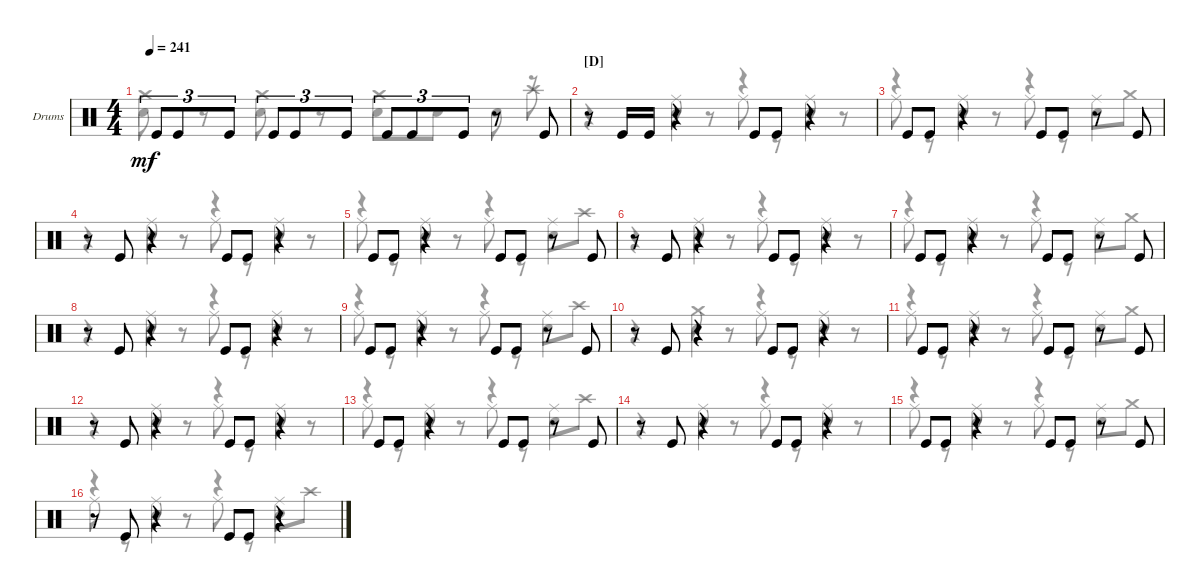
\defaultSystemsLayout 4
\bracketExtendMode groupsimilarinstruments
\firstSystemTrackNameOrientation horizontal
\otherSystemsTrackNameOrientation horizontal
\track ("Drumkit" "Drums") {instrument percussion}
\staff {score}
\articulation defaults
\voice
\ts (4 4)
\tempo 241
\clef neutral
\ks c "Kick (hit)".8{tu (3 2) dy mf} "Kick (hit)".8{tu (3 2)} "Kick (hit)".8{tu (3 2)} "Kick (hit)".8{tu (3 2)} "Kick (hit)".8{tu (3 2)} "Kick (hit)".8{tu (3 2)} "Kick (hit)".8{tu (3 2)} "Kick (hit)".8{tu (3 2)} "Kick (hit)".8{tu (3 2)}
r.8 "Kick (hit)".8 |
\section ("D" "")
r.8 "Kick (hit)".16 "Kick (hit)".16 r.4 "Kick (hit)".8 "Kick (hit)".8 r.4 |
"Kick (hit)".8 "Kick (hit)".8 r.4 "Kick (hit)".8 "Kick (hit)".8 r.8 "Kick (hit)".8 |
r.8 "Kick (hit)".8 r.4 "Kick (hit)".8 "Kick (hit)".8 r.4 |
"Kick (hit)".8 "Kick (hit)".8 r.4 "Kick (hit)".8 "Kick (hit)".8 r.8 "Kick (hit)".8 |
r.8 "Kick (hit)".8 r.4 "Kick (hit)".8 "Kick (hit)".8 r.4 |
"Kick (hit)".8 "Kick (hit)".8 r.4 "Kick (hit)".8 "Kick (hit)".8 r.8 "Kick (hit)".8 |
r.8 "Kick (hit)".8 r.4 "Kick (hit)".8 "Kick (hit)".8 r.4 |
"Kick (hit)".8 "Kick (hit)".8 r.4 "Kick (hit)".8 "Kick (hit)".8 r.8 "Kick (hit)".8 |
r.8 "Kick (hit)".8 r.4 "Kick (hit)".8 "Kick (hit)".8 r.4 |
"Kick (hit)".8 "Kick (hit)".8 r.4 "Kick (hit)".8 "Kick (hit)".8 r.8 "Kick (hit)".8 |
r.8 "Kick (hit)".8 r.4 "Kick (hit)".8 "Kick (hit)".8 r.4 |
"Kick (hit)".8 "Kick (hit)".8 r.4 "Kick (hit)".8 "Kick (hit)".8 r.8 "Kick (hit)".8 |
r.8 "Kick (hit)".8 r.4 "Kick (hit)".8 "Kick (hit)".8 r.4 |
"Kick (hit)".8 "Kick (hit)".8 r.4 "Kick (hit)".8 "Kick (hit)".8 r.8 "Kick (hit)".8 |
r.8 "Kick (hit)".8 r.4 "Kick (hit)".8 "Kick (hit)".8 r.4
\voice
\clef neutral
\ottava regular
\simile none
\ks c "Snare (hit) 2".8{dy mf}
r.8 "Snare (hit) 2".8 r.8 "Snare (hit) 2".8 "Snare (hit) 2".8 "Snare (hit) 2".8 r.8 |
r.4 "Snare (hit) 2".4 r.4 "Snare (hit) 2".4 |
r.4 "Snare (hit) 2".4 r.4 "Snare (hit) 2".4 |
r.4 "Snare (hit) 2".4 r.4 "Snare (hit) 2".4 |
r.4 "Snare (hit) 2".4 r.4 "Snare (hit) 2".4 |
r.4 "Snare (hit) 2".4 r.4 "Snare (hit) 2".4 |
r.4 "Snare (hit) 2".4 r.4 "Snare (hit) 2".4 |
r.4 "Snare (hit) 2".4 r.4 "Snare (hit) 2".4 |
r.4 "Snare (hit) 2".4 r.4 "Snare (hit) 2".4 |
r.4 "Snare (hit) 2".4 r.4 "Snare (hit) 2".4 |
r.4 "Snare (hit) 2".4 r.4 "Snare (hit) 2".4 |
r.4 "Snare (hit) 2".4 r.4 "Snare (hit) 2".4 |
r.4 "Snare (hit) 2".4 r.4 "Snare (hit) 2".4 |
r.4 "Snare (hit) 2".4 r.4 "Snare (hit) 2".4 |
r.4 "Snare (hit) 2".4 r.4 "Snare (hit) 2".4 |
r.4 "Snare (hit) 2".4 r.4 "Snare (hit) 2".4
\voice
\clef neutral
\ottava regular
\simile none
\ks c "Crash medium (hit)".4{dy mf} "Crash medium (hit)".4 "Crash medium (hit)".4
r.8 "Crash high (hit)".8 |
r.4 "Ride (middle)".8 r.8 "Ride (middle)".8 r.8 "Ride (middle)".8 r.8 |
"Ride (middle)".8 r.8 "Ride (middle)".8 r.8 "Ride (middle)".8 r.8 "Ride (middle)".8 "Crash medium (hit)".8 |
r.4 "Ride (middle)".8 r.8 "Ride (middle)".8 r.8 "Ride (middle)".8 r.8 |
"Ride (middle)".8 r.8 "Ride (middle)".8 r.8 "Ride (middle)".8 r.8 "Ride (middle)".8 "Crash high (hit)".8 |
r.4 "Ride (middle)".8 r.8 "Ride (middle)".8 r.8 "Ride (middle)".8 r.8 |
"Ride (middle)".8 r.8 "Ride (middle)".8 r.8 "Ride (middle)".8 r.8 "Ride (middle)".8 "Crash medium (hit)".8 |
r.4 "Ride (middle)".8 r.8 "Ride (middle)".8 r.8 "Ride (middle)".8 r.8 |
"Ride (middle)".8 r.8 "Ride (middle)".8 r.8 "Ride (middle)".8 r.8 "Ride (middle)".8 "Crash high (hit)".8 |
r.4 "Crash medium (hit)".8 r.8 "Ride (middle)".8 r.8 "Ride (middle)".8 r.8 |
"Ride (middle)".8 r.8 "Ride (middle)".8 r.8 "Ride (middle)".8 r.8 "Ride (middle)".8 "Crash medium (hit)".8 |
r.4 "Ride (middle)".8 r.8 "Ride (middle)".8 r.8 "Ride (middle)".8 r.8 |
"Ride (middle)".8 r.8 "Ride (middle)".8 r.8 "Ride (middle)".8 r.8 "Ride (middle)".8 "Crash high (hit)".8 |
r.4 "Ride (middle)".8 r.8 "Ride (middle)".8 r.8 "Ride (middle)".8 r.8 |
"Ride (middle)".8 r.8 "Ride (middle)".8 r.8 "Ride (middle)".8 r.8 "Ride (middle)".8 "Crash medium (hit)".8 |
"Ride (middle)".8 r.8 "Ride (middle)".8 r.8 "Ride (middle)".8 r.8 "Ride (middle)".8 "Crash high (hit)".8
